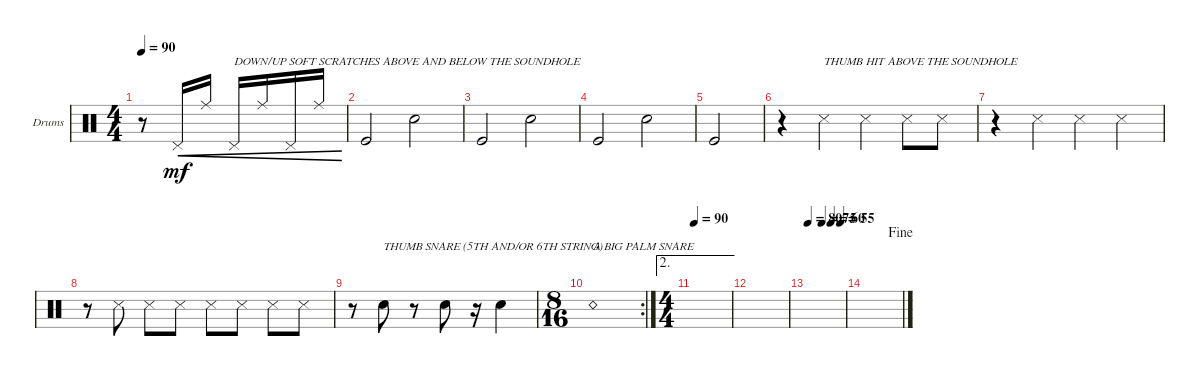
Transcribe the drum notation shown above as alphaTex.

\defaultSystemsLayout 4
\bracketExtendMode groupsimilarinstruments
\firstSystemTrackNameOrientation horizontal
\otherSystemsTrackNameOrientation horizontal
\track ("Drumkit" "Drums") {instrument percussion}
\staff {score}
\articulation defaults
\ts (4 4)
\tempo 90
\clef neutral
\scale
0.333333
\ks c
r.8{dy mf} "Pedal Hi-Hat (hit)".16{cre} "Ride (middle)".16{cre} "Pedal Hi-Hat (hit)".16{txt "DOWN/UP SOFT SCRATCHES ABOVE AND BELOW THE SOUNDHOLE" cre} "Ride (middle)".16{cre} "Pedal Hi-Hat (hit)".16{cre} "Ride (middle)".16{cre} |
\scale
0.333333 "Kick (hit)".2 "Snare (hit) 2".2 |
\scale
0.333333 "Kick (hit)".2 "Snare (hit) 2".2 |
\scale
0.333333 "Kick (hit)".2 "Snare (hit) 2".2 |
\scale
0.333333 "Kick (hit)".2 |
\scale
0.333333 r.4 "Snare (side stick) 3".4{txt "THUMB HIT ABOVE THE SOUNDHOLE"} "Snare (side stick) 3".4 "Snare (side stick) 3".8 "Snare (side stick) 3".8 |
\scale
0.333333 r.4 "Snare (side stick) 3".4 "Snare (side stick) 3".4 "Snare (side stick) 3".4 |
\scale
0.333333 r.8 "Snare (side stick) 3".8 "Snare (side stick) 3".8 "Snare (side stick) 3".8 "Snare (side stick) 3".8 "Snare (side stick) 3".8 "Snare (side stick) 3".8 "Snare (side stick) 3".8 |
\scale
0.213483 r.8 "Snare (hit) 2".8{txt "THUMB SNARE (5TH AND/OR 6TH STRING)"} r.8 "Snare (hit) 2".8 r.16 "Snare (hit) 2".4 |
\rc 2
\ts (8 16)
\scale
0.404494 "Snare (rim shot)".1{txt "A BIG PALM SNARE"} |
\ae 2
\ts (4 4)
\tempo 90
\scale
0.382022 |
|
\tempo 80
\tempo (75 0.38125)
\tempo (60 0.625)
\tempo (55 0.88125)
|
\jump fine
